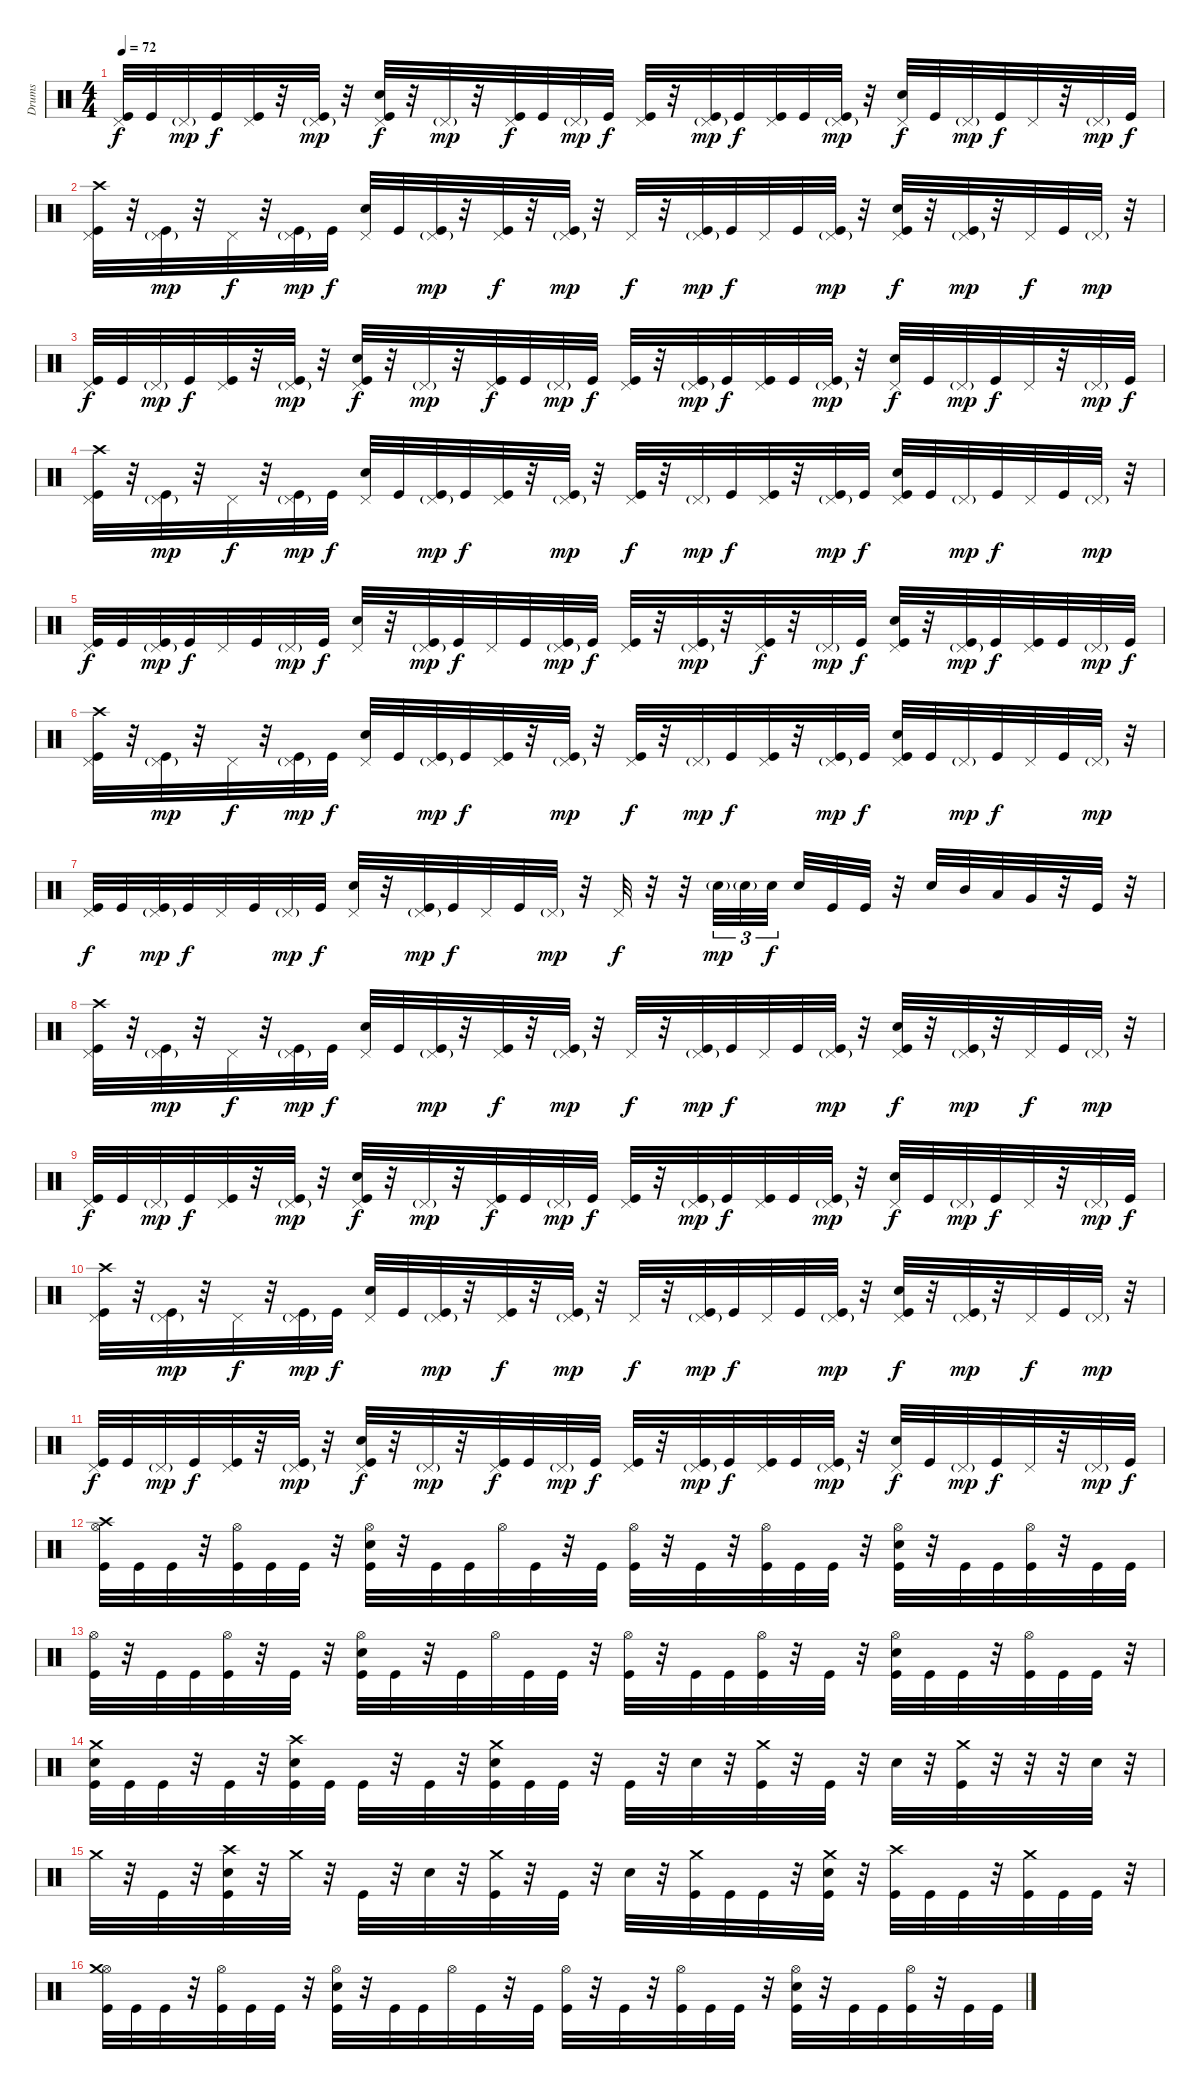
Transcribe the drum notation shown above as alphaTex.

\track ("Drums" "Drums") {instrument percussion}
\staff {score}
\articulation defaults
\ts (4 4)
\tempo 72
\clef neutral
\ks c
("Pedal Hi-Hat (hit)" "Kick (hit)").32{dy f} "Kick (hit)".32 "Pedal Hi-Hat (hit)"{g}.32{dy mp} "Kick (hit)".32{dy f} ("Pedal Hi-Hat (hit)" "Kick (hit)").32 r.32 ("Pedal Hi-Hat (hit)"{g} "Kick (hit)").32{dy mp} r.32 ("Pedal Hi-Hat (hit)" "Electric Snare (hit)" "Kick (hit)").32{dy f} r.32 "Pedal Hi-Hat (hit)"{g}.32{dy mp} r.32 ("Pedal Hi-Hat (hit)" "Kick (hit)").32{dy f} "Kick (hit)".32 "Pedal Hi-Hat (hit)"{g}.32{dy mp} "Kick (hit)".32{dy f} ("Pedal Hi-Hat (hit)" "Kick (hit)").32 r.32 ("Pedal Hi-Hat (hit)"{g} "Kick (hit)").32{dy mp} "Kick (hit)".32{dy f} ("Pedal Hi-Hat (hit)" "Kick (hit)").32 "Kick (hit)".32 ("Pedal Hi-Hat (hit)"{g} "Kick (hit)").32{dy mp} r.32 ("Pedal Hi-Hat (hit)" "Electric Snare (hit)").32{dy f} "Kick (hit)".32 "Pedal Hi-Hat (hit)"{g}.32{dy mp} "Kick (hit)".32{dy f} "Pedal Hi-Hat (hit)".32 r.32 "Pedal Hi-Hat (hit)"{g}.32{dy mp} "Kick (hit)".32{dy f} |
("Pedal Hi-Hat (hit)" "Crash high (hit)" "Kick (hit)").32 r.32 ("Pedal Hi-Hat (hit)"{g} "Kick (hit)").32{dy mp} r.32 "Pedal Hi-Hat (hit)".32{dy f} r.32 ("Pedal Hi-Hat (hit)"{g} "Kick (hit)").32{dy mp} "Kick (hit)".32{dy f} ("Pedal Hi-Hat (hit)" "Electric Snare (hit)").32 "Kick (hit)".32 ("Pedal Hi-Hat (hit)"{g} "Kick (hit)").32{dy mp} r.32 ("Pedal Hi-Hat (hit)" "Kick (hit)").32{dy f} r.32 ("Pedal Hi-Hat (hit)"{g} "Kick (hit)").32{dy mp} r.32 "Pedal Hi-Hat (hit)".32{dy f} r.32 ("Pedal Hi-Hat (hit)"{g} "Kick (hit)").32{dy mp} "Kick (hit)".32{dy f} "Pedal Hi-Hat (hit)".32 "Kick (hit)".32 ("Pedal Hi-Hat (hit)"{g} "Kick (hit)").32{dy mp} r.32 ("Pedal Hi-Hat (hit)" "Electric Snare (hit)" "Kick (hit)").32{dy f} r.32 ("Pedal Hi-Hat (hit)"{g} "Kick (hit)").32{dy mp} r.32 "Pedal Hi-Hat (hit)".32{dy f} "Kick (hit)".32 "Pedal Hi-Hat (hit)"{g}.32{dy mp} r.32 |
("Pedal Hi-Hat (hit)" "Kick (hit)").32{dy f} "Kick (hit)".32 "Pedal Hi-Hat (hit)"{g}.32{dy mp} "Kick (hit)".32{dy f} ("Pedal Hi-Hat (hit)" "Kick (hit)").32 r.32 ("Pedal Hi-Hat (hit)"{g} "Kick (hit)").32{dy mp} r.32 ("Pedal Hi-Hat (hit)" "Electric Snare (hit)" "Kick (hit)").32{dy f} r.32 "Pedal Hi-Hat (hit)"{g}.32{dy mp} r.32 ("Pedal Hi-Hat (hit)" "Kick (hit)").32{dy f} "Kick (hit)".32 "Pedal Hi-Hat (hit)"{g}.32{dy mp} "Kick (hit)".32{dy f} ("Pedal Hi-Hat (hit)" "Kick (hit)").32 r.32 ("Pedal Hi-Hat (hit)"{g} "Kick (hit)").32{dy mp} "Kick (hit)".32{dy f} ("Pedal Hi-Hat (hit)" "Kick (hit)").32 "Kick (hit)".32 ("Pedal Hi-Hat (hit)"{g} "Kick (hit)").32{dy mp} r.32 ("Pedal Hi-Hat (hit)" "Electric Snare (hit)").32{dy f} "Kick (hit)".32 "Pedal Hi-Hat (hit)"{g}.32{dy mp} "Kick (hit)".32{dy f} "Pedal Hi-Hat (hit)".32 r.32 "Pedal Hi-Hat (hit)"{g}.32{dy mp} "Kick (hit)".32{dy f} |
("Pedal Hi-Hat (hit)" "Crash high (hit)" "Kick (hit)").32 r.32 ("Pedal Hi-Hat (hit)"{g} "Kick (hit)").32{dy mp} r.32 "Pedal Hi-Hat (hit)".32{dy f} r.32 ("Pedal Hi-Hat (hit)"{g} "Kick (hit)").32{dy mp} "Kick (hit)".32{dy f} ("Pedal Hi-Hat (hit)" "Electric Snare (hit)").32 "Kick (hit)".32 ("Pedal Hi-Hat (hit)"{g} "Kick (hit)").32{dy mp} "Kick (hit)".32{dy f} ("Pedal Hi-Hat (hit)" "Kick (hit)").32 r.32 ("Pedal Hi-Hat (hit)"{g} "Kick (hit)").32{dy mp} r.32 ("Pedal Hi-Hat (hit)" "Kick (hit)").32{dy f} r.32 "Pedal Hi-Hat (hit)"{g}.32{dy mp} "Kick (hit)".32{dy f} ("Pedal Hi-Hat (hit)" "Kick (hit)").32 r.32 ("Pedal Hi-Hat (hit)"{g} "Kick (hit)").32{dy mp} "Kick (hit)".32{dy f} ("Pedal Hi-Hat (hit)" "Electric Snare (hit)" "Kick (hit)").32 "Kick (hit)".32 "Pedal Hi-Hat (hit)"{g}.32{dy mp} "Kick (hit)".32{dy f} "Pedal Hi-Hat (hit)".32 "Kick (hit)".32 "Pedal Hi-Hat (hit)"{g}.32{dy mp} r.32 |
("Pedal Hi-Hat (hit)" "Kick (hit)").32{dy f} "Kick (hit)".32 ("Pedal Hi-Hat (hit)"{g} "Kick (hit)").32{dy mp} "Kick (hit)".32{dy f} "Pedal Hi-Hat (hit)".32 "Kick (hit)".32 "Pedal Hi-Hat (hit)"{g}.32{dy mp} "Kick (hit)".32{dy f} ("Pedal Hi-Hat (hit)" "Electric Snare (hit)").32 r.32 ("Pedal Hi-Hat (hit)"{g} "Kick (hit)").32{dy mp} "Kick (hit)".32{dy f} "Pedal Hi-Hat (hit)".32 "Kick (hit)".32 ("Pedal Hi-Hat (hit)"{g} "Kick (hit)").32{dy mp} "Kick (hit)".32{dy f} ("Pedal Hi-Hat (hit)" "Kick (hit)").32 r.32 ("Pedal Hi-Hat (hit)"{g} "Kick (hit)").32{dy mp} r.32 ("Pedal Hi-Hat (hit)" "Kick (hit)").32{dy f} r.32 "Pedal Hi-Hat (hit)"{g}.32{dy mp} "Kick (hit)".32{dy f} ("Pedal Hi-Hat (hit)" "Electric Snare (hit)" "Kick (hit)").32 r.32 ("Pedal Hi-Hat (hit)"{g} "Kick (hit)").32{dy mp} "Kick (hit)".32{dy f} ("Pedal Hi-Hat (hit)" "Kick (hit)").32 "Kick (hit)".32 "Pedal Hi-Hat (hit)"{g}.32{dy mp} "Kick (hit)".32{dy f} |
("Pedal Hi-Hat (hit)" "Crash high (hit)" "Kick (hit)").32 r.32 ("Pedal Hi-Hat (hit)"{g} "Kick (hit)").32{dy mp} r.32 "Pedal Hi-Hat (hit)".32{dy f} r.32 ("Pedal Hi-Hat (hit)"{g} "Kick (hit)").32{dy mp} "Kick (hit)".32{dy f} ("Pedal Hi-Hat (hit)" "Electric Snare (hit)").32 "Kick (hit)".32 ("Pedal Hi-Hat (hit)"{g} "Kick (hit)").32{dy mp} "Kick (hit)".32{dy f} ("Pedal Hi-Hat (hit)" "Kick (hit)").32 r.32 ("Pedal Hi-Hat (hit)"{g} "Kick (hit)").32{dy mp} r.32 ("Pedal Hi-Hat (hit)" "Kick (hit)").32{dy f} r.32 "Pedal Hi-Hat (hit)"{g}.32{dy mp} "Kick (hit)".32{dy f} ("Pedal Hi-Hat (hit)" "Kick (hit)").32 r.32 ("Pedal Hi-Hat (hit)"{g} "Kick (hit)").32{dy mp} "Kick (hit)".32{dy f} ("Pedal Hi-Hat (hit)" "Electric Snare (hit)" "Kick (hit)").32 "Kick (hit)".32 "Pedal Hi-Hat (hit)"{g}.32{dy mp} "Kick (hit)".32{dy f} "Pedal Hi-Hat (hit)".32 "Kick (hit)".32 "Pedal Hi-Hat (hit)"{g}.32{dy mp} r.32 |
("Pedal Hi-Hat (hit)" "Kick (hit)").32{dy f} "Kick (hit)".32 ("Pedal Hi-Hat (hit)"{g} "Kick (hit)").32{dy mp} "Kick (hit)".32{dy f} "Pedal Hi-Hat (hit)".32 "Kick (hit)".32 "Pedal Hi-Hat (hit)"{g}.32{dy mp} "Kick (hit)".32{dy f} ("Pedal Hi-Hat (hit)" "Electric Snare (hit)").32 r.32 ("Pedal Hi-Hat (hit)"{g} "Kick (hit)").32{dy mp} "Kick (hit)".32{dy f} "Pedal Hi-Hat (hit)".32 "Kick (hit)".32 "Pedal Hi-Hat (hit)"{g}.32{dy mp} r.32 "Pedal Hi-Hat (hit)".32{dy f} r.32 r.32 "Electric Snare (hit)"{g}.32{tu (3 2) dy mp} "Electric Snare (hit)"{g}.32{tu (3 2)} "Electric Snare (hit)".32{tu (3 2) dy f beam splitsecondary} "Electric Snare (hit)".32 "Kick (hit)".32 "Kick (hit)".32 r.32 "Electric Snare (hit)".32 "Mid Tom (hit)".32 "Low Tom (hit)".32 "Very Low Tom (hit)".32 r.32 "Kick (hit)".32 r.32 |
("Pedal Hi-Hat (hit)" "Crash high (hit)" "Kick (hit)").32 r.32 ("Pedal Hi-Hat (hit)"{g} "Kick (hit)").32{dy mp} r.32 "Pedal Hi-Hat (hit)".32{dy f} r.32 ("Pedal Hi-Hat (hit)"{g} "Kick (hit)").32{dy mp} "Kick (hit)".32{dy f} ("Pedal Hi-Hat (hit)" "Electric Snare (hit)").32 "Kick (hit)".32 ("Pedal Hi-Hat (hit)"{g} "Kick (hit)").32{dy mp} r.32 ("Pedal Hi-Hat (hit)" "Kick (hit)").32{dy f} r.32 ("Pedal Hi-Hat (hit)"{g} "Kick (hit)").32{dy mp} r.32 "Pedal Hi-Hat (hit)".32{dy f} r.32 ("Pedal Hi-Hat (hit)"{g} "Kick (hit)").32{dy mp} "Kick (hit)".32{dy f} "Pedal Hi-Hat (hit)".32 "Kick (hit)".32 ("Pedal Hi-Hat (hit)"{g} "Kick (hit)").32{dy mp} r.32 ("Pedal Hi-Hat (hit)" "Electric Snare (hit)" "Kick (hit)").32{dy f} r.32 ("Pedal Hi-Hat (hit)"{g} "Kick (hit)").32{dy mp} r.32 "Pedal Hi-Hat (hit)".32{dy f} "Kick (hit)".32 "Pedal Hi-Hat (hit)"{g}.32{dy mp} r.32 |
("Pedal Hi-Hat (hit)" "Kick (hit)").32{dy f} "Kick (hit)".32 "Pedal Hi-Hat (hit)"{g}.32{dy mp} "Kick (hit)".32{dy f} ("Pedal Hi-Hat (hit)" "Kick (hit)").32 r.32 ("Pedal Hi-Hat (hit)"{g} "Kick (hit)").32{dy mp} r.32 ("Pedal Hi-Hat (hit)" "Electric Snare (hit)" "Kick (hit)").32{dy f} r.32 "Pedal Hi-Hat (hit)"{g}.32{dy mp} r.32 ("Pedal Hi-Hat (hit)" "Kick (hit)").32{dy f} "Kick (hit)".32 "Pedal Hi-Hat (hit)"{g}.32{dy mp} "Kick (hit)".32{dy f} ("Pedal Hi-Hat (hit)" "Kick (hit)").32 r.32 ("Pedal Hi-Hat (hit)"{g} "Kick (hit)").32{dy mp} "Kick (hit)".32{dy f} ("Pedal Hi-Hat (hit)" "Kick (hit)").32 "Kick (hit)".32 ("Pedal Hi-Hat (hit)"{g} "Kick (hit)").32{dy mp} r.32 ("Pedal Hi-Hat (hit)" "Electric Snare (hit)").32{dy f} "Kick (hit)".32 "Pedal Hi-Hat (hit)"{g}.32{dy mp} "Kick (hit)".32{dy f} "Pedal Hi-Hat (hit)".32 r.32 "Pedal Hi-Hat (hit)"{g}.32{dy mp} "Kick (hit)".32{dy f} |
("Pedal Hi-Hat (hit)" "Crash high (hit)" "Kick (hit)").32 r.32 ("Pedal Hi-Hat (hit)"{g} "Kick (hit)").32{dy mp} r.32 "Pedal Hi-Hat (hit)".32{dy f} r.32 ("Pedal Hi-Hat (hit)"{g} "Kick (hit)").32{dy mp} "Kick (hit)".32{dy f} ("Pedal Hi-Hat (hit)" "Electric Snare (hit)").32 "Kick (hit)".32 ("Pedal Hi-Hat (hit)"{g} "Kick (hit)").32{dy mp} r.32 ("Pedal Hi-Hat (hit)" "Kick (hit)").32{dy f} r.32 ("Pedal Hi-Hat (hit)"{g} "Kick (hit)").32{dy mp} r.32 "Pedal Hi-Hat (hit)".32{dy f} r.32 ("Pedal Hi-Hat (hit)"{g} "Kick (hit)").32{dy mp} "Kick (hit)".32{dy f} "Pedal Hi-Hat (hit)".32 "Kick (hit)".32 ("Pedal Hi-Hat (hit)"{g} "Kick (hit)").32{dy mp} r.32 ("Pedal Hi-Hat (hit)" "Electric Snare (hit)" "Kick (hit)").32{dy f} r.32 ("Pedal Hi-Hat (hit)"{g} "Kick (hit)").32{dy mp} r.32 "Pedal Hi-Hat (hit)".32{dy f} "Kick (hit)".32 "Pedal Hi-Hat (hit)"{g}.32{dy mp} r.32 |
("Pedal Hi-Hat (hit)" "Kick (hit)").32{dy f} "Kick (hit)".32 "Pedal Hi-Hat (hit)"{g}.32{dy mp} "Kick (hit)".32{dy f} ("Pedal Hi-Hat (hit)" "Kick (hit)").32 r.32 ("Pedal Hi-Hat (hit)"{g} "Kick (hit)").32{dy mp} r.32 ("Pedal Hi-Hat (hit)" "Electric Snare (hit)" "Kick (hit)").32{dy f} r.32 "Pedal Hi-Hat (hit)"{g}.32{dy mp} r.32 ("Pedal Hi-Hat (hit)" "Kick (hit)").32{dy f} "Kick (hit)".32 "Pedal Hi-Hat (hit)"{g}.32{dy mp} "Kick (hit)".32{dy f} ("Pedal Hi-Hat (hit)" "Kick (hit)").32 r.32 ("Pedal Hi-Hat (hit)"{g} "Kick (hit)").32{dy mp} "Kick (hit)".32{dy f} ("Pedal Hi-Hat (hit)" "Kick (hit)").32 "Kick (hit)".32 ("Pedal Hi-Hat (hit)"{g} "Kick (hit)").32{dy mp} r.32 ("Pedal Hi-Hat (hit)" "Electric Snare (hit)").32{dy f} "Kick (hit)".32 "Pedal Hi-Hat (hit)"{g}.32{dy mp} "Kick (hit)".32{dy f} "Pedal Hi-Hat (hit)".32 r.32 "Pedal Hi-Hat (hit)"{g}.32{dy mp} "Kick (hit)".32{dy f} |
("Hi-Hat (open)" "Crash high (hit)" "Kick (hit)").32 "Kick (hit)".32 "Kick (hit)".32 r.32 ("Hi-Hat (open)" "Kick (hit)").32 "Kick (hit)".32 "Kick (hit)".32 r.32 ("Hi-Hat (open)" "Electric Snare (hit)" "Kick (hit)").32 r.32 "Kick (hit)".32 "Kick (hit)".32 "Hi-Hat (open)".32 "Kick (hit)".32 r.32 "Kick (hit)".32 ("Hi-Hat (open)" "Kick (hit)").32 r.32 "Kick (hit)".32 r.32 ("Hi-Hat (open)" "Kick (hit)").32 "Kick (hit)".32 "Kick (hit)".32 r.32 ("Hi-Hat (open)" "Electric Snare (hit)" "Kick (hit)").32 r.32 "Kick (hit)".32 "Kick (hit)".32 ("Hi-Hat (open)" "Kick (hit)").32 r.32 "Kick (hit)".32 "Kick (hit)".32 |
("Hi-Hat (open)" "Kick (hit)").32 r.32 "Kick (hit)".32 "Kick (hit)".32 ("Hi-Hat (open)" "Kick (hit)").32 r.32 "Kick (hit)".32 r.32 ("Hi-Hat (open)" "Electric Snare (hit)" "Kick (hit)").32 "Kick (hit)".32 r.32 "Kick (hit)".32 "Hi-Hat (open)".32 "Kick (hit)".32 "Kick (hit)".32 r.32 ("Hi-Hat (open)" "Kick (hit)").32 r.32 "Kick (hit)".32 "Kick (hit)".32 ("Hi-Hat (open)" "Kick (hit)").32 r.32 "Kick (hit)".32 r.32 ("Hi-Hat (open)" "Electric Snare (hit)" "Kick (hit)").32 "Kick (hit)".32 "Kick (hit)".32 r.32 ("Hi-Hat (open)" "Kick (hit)").32 "Kick (hit)".32 "Kick (hit)".32 r.32 |
("Crash medium (hit)" "Electric Snare (hit)" "Kick (hit)").32 "Kick (hit)".32 "Kick (hit)".32 r.32 "Kick (hit)".32 r.32 ("Crash high (hit)" "Electric Snare (hit)" "Kick (hit)").32 "Kick (hit)".32 "Kick (hit)".32 r.32 "Kick (hit)".32 r.32 ("Crash medium (hit)" "Electric Snare (hit)" "Kick (hit)").32 "Kick (hit)".32 "Kick (hit)".32 r.32 "Kick (hit)".32 r.32 "Electric Snare (hit)".32 r.32 ("Crash medium (hit)" "Kick (hit)").32 r.32 "Kick (hit)".32 r.32 "Electric Snare (hit)".32 r.32 ("Crash medium (hit)" "Kick (hit)").32 r.32 r.32 r.32 "Electric Snare (hit)".32 r.32 |
"Crash medium (hit)".32 r.32 "Kick (hit)".32 r.32 ("Crash high (hit)" "Electric Snare (hit)" "Kick (hit)").32 r.32 "Crash medium (hit)".32 r.32 "Kick (hit)".32 r.32 "Electric Snare (hit)".32 r.32 ("Crash medium (hit)" "Kick (hit)").32 r.32 "Kick (hit)".32 r.32 "Electric Snare (hit)".32 r.32 ("Crash medium (hit)" "Kick (hit)").32 "Kick (hit)".32 "Kick (hit)".32 r.32 ("Crash medium (hit)" "Electric Snare (hit)" "Kick (hit)").32 r.32 ("Crash high (hit)" "Kick (hit)").32 "Kick (hit)".32 "Kick (hit)".32 r.32 ("Crash medium (hit)" "Kick (hit)").32 "Kick (hit)".32 "Kick (hit)".32 r.32 |
("Hi-Hat (open)" "Crash medium (hit)" "Kick (hit)").32 "Kick (hit)".32 "Kick (hit)".32 r.32 ("Hi-Hat (open)" "Kick (hit)").32 "Kick (hit)".32 "Kick (hit)".32 r.32 ("Hi-Hat (open)" "Electric Snare (hit)" "Kick (hit)").32 r.32 "Kick (hit)".32 "Kick (hit)".32 "Hi-Hat (open)".32 "Kick (hit)".32 r.32 "Kick (hit)".32 ("Hi-Hat (open)" "Kick (hit)").32 r.32 "Kick (hit)".32 r.32 ("Hi-Hat (open)" "Kick (hit)").32 "Kick (hit)".32 "Kick (hit)".32 r.32 ("Hi-Hat (open)" "Electric Snare (hit)" "Kick (hit)").32 r.32 "Kick (hit)".32 "Kick (hit)".32 ("Hi-Hat (open)" "Kick (hit)").32 r.32 "Kick (hit)".32 "Kick (hit)".32
